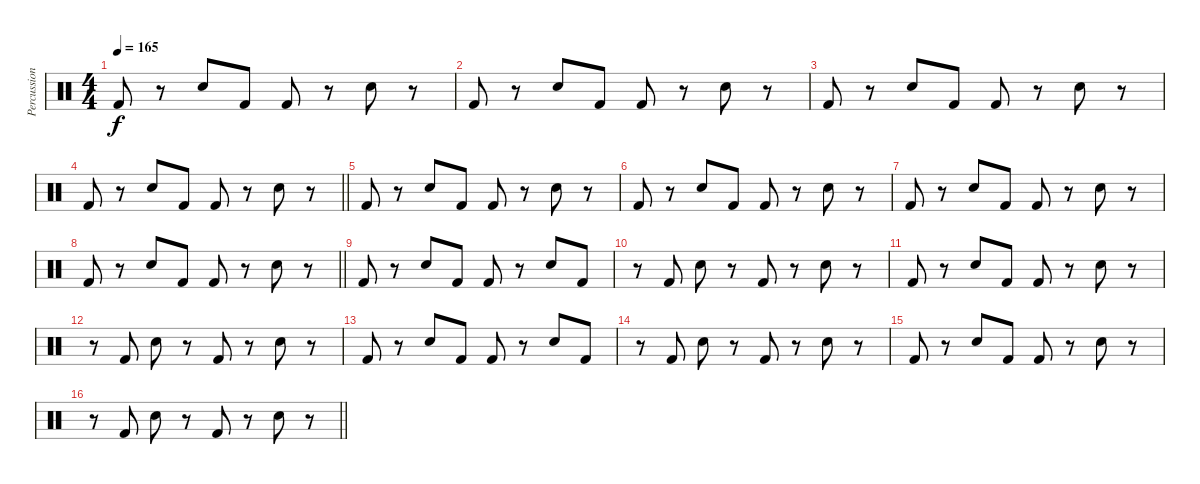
\track ("Percussion" "Percussion") {instrument percussion}
\staff {score}
\articulation defaults
\ts (4 4)
\tempo 165
\clef neutral
\ks c "Kick (hit) 2".8{dy f}
r.8 "Snare (hit) 2".8 "Kick (hit) 2".8 "Kick (hit) 2".8 r.8 "Snare (hit) 2".8 r.8 |
"Kick (hit) 2".8 r.8 "Snare (hit) 2".8 "Kick (hit) 2".8 "Kick (hit) 2".8 r.8 "Snare (hit) 2".8 r.8 |
"Kick (hit) 2".8 r.8 "Snare (hit) 2".8 "Kick (hit) 2".8 "Kick (hit) 2".8 r.8 "Snare (hit) 2".8 r.8 |
\barLineRight lightlight "Kick (hit) 2".8
r.8 "Snare (hit) 2".8 "Kick (hit) 2".8 "Kick (hit) 2".8 r.8 "Snare (hit) 2".8 r.8 |
"Kick (hit) 2".8 r.8 "Snare (hit) 2".8 "Kick (hit) 2".8 "Kick (hit) 2".8 r.8 "Snare (hit) 2".8 r.8 |
"Kick (hit) 2".8 r.8 "Snare (hit) 2".8 "Kick (hit) 2".8 "Kick (hit) 2".8 r.8 "Snare (hit) 2".8 r.8 |
"Kick (hit) 2".8 r.8 "Snare (hit) 2".8 "Kick (hit) 2".8 "Kick (hit) 2".8 r.8 "Snare (hit) 2".8 r.8 |
\barLineRight lightlight "Kick (hit) 2".8
r.8 "Snare (hit) 2".8 "Kick (hit) 2".8 "Kick (hit) 2".8 r.8 "Snare (hit) 2".8 r.8 |
"Kick (hit) 2".8 r.8 "Snare (hit) 2".8 "Kick (hit) 2".8 "Kick (hit) 2".8 r.8 "Snare (hit) 2".8 "Kick (hit) 2".8 |
r.8 "Kick (hit) 2".8 "Snare (hit) 2".8 r.8 "Kick (hit) 2".8 r.8 "Snare (hit) 2".8 r.8 |
"Kick (hit) 2".8 r.8 "Snare (hit) 2".8 "Kick (hit) 2".8 "Kick (hit) 2".8 r.8 "Snare (hit) 2".8 r.8 |
r.8 "Kick (hit) 2".8 "Snare (hit) 2".8 r.8 "Kick (hit) 2".8 r.8 "Snare (hit) 2".8 r.8 |
"Kick (hit) 2".8 r.8 "Snare (hit) 2".8 "Kick (hit) 2".8 "Kick (hit) 2".8 r.8 "Snare (hit) 2".8 "Kick (hit) 2".8 |
r.8 "Kick (hit) 2".8 "Snare (hit) 2".8 r.8 "Kick (hit) 2".8 r.8 "Snare (hit) 2".8 r.8 |
"Kick (hit) 2".8 r.8 "Snare (hit) 2".8 "Kick (hit) 2".8 "Kick (hit) 2".8 r.8 "Snare (hit) 2".8 r.8 |
\barLineRight lightlight
r.8 "Kick (hit) 2".8 "Snare (hit) 2".8 r.8 "Kick (hit) 2".8 r.8 "Snare (hit) 2".8 r.8
